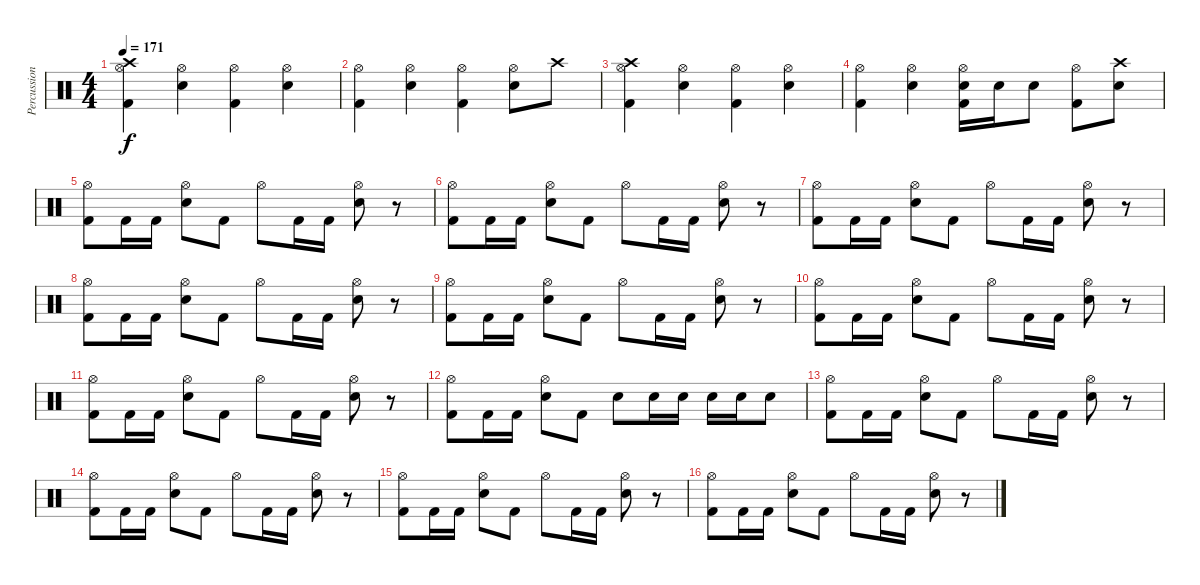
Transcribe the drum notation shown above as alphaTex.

\track ("Percussions" "Percussion") {instrument percussion}
\staff {score}
\articulation defaults
\ts (4 4)
\tempo 171
\clef neutral
\ks c
("Crash high (hit)" "Hi-Hat (open)" "Kick (hit) 2").4{dy f} ("Hi-Hat (open)" "Electric Snare (hit)").4 ("Hi-Hat (open)" "Kick (hit) 2").4 ("Hi-Hat (open)" "Electric Snare (hit)").4 |
("Hi-Hat (open)" "Kick (hit) 2").4 ("Hi-Hat (open)" "Electric Snare (hit)").4 ("Hi-Hat (open)" "Kick (hit) 2").4 ("Hi-Hat (open)" "Electric Snare (hit)").8 "Crash high (hit)".8 |
("Crash high (hit)" "Hi-Hat (open)" "Kick (hit) 2").4 ("Hi-Hat (open)" "Electric Snare (hit)").4 ("Hi-Hat (open)" "Kick (hit) 2").4 ("Hi-Hat (open)" "Electric Snare (hit)").4 |
("Hi-Hat (open)" "Kick (hit) 2").4 ("Hi-Hat (open)" "Electric Snare (hit)").4 ("Hi-Hat (open)" "Electric Snare (hit)" "Kick (hit) 2").16 "Electric Snare (hit)".16 "Electric Snare (hit)".8 ("Hi-Hat (open)" "Kick (hit) 2").8 ("Crash high (hit)" "Electric Snare (hit)").8 |
("Hi-Hat (open)" "Kick (hit) 2").8 "Kick (hit) 2".16 "Kick (hit) 2".16 ("Hi-Hat (open)" "Electric Snare (hit)").8 "Kick (hit) 2".8 "Hi-Hat (open)".8 "Kick (hit) 2".16 "Kick (hit) 2".16 ("Hi-Hat (open)" "Electric Snare (hit)").8 r.8 |
("Hi-Hat (open)" "Kick (hit) 2").8 "Kick (hit) 2".16 "Kick (hit) 2".16 ("Hi-Hat (open)" "Electric Snare (hit)").8 "Kick (hit) 2".8 "Hi-Hat (open)".8 "Kick (hit) 2".16 "Kick (hit) 2".16 ("Hi-Hat (open)" "Electric Snare (hit)").8 r.8 |
("Hi-Hat (open)" "Kick (hit) 2").8 "Kick (hit) 2".16 "Kick (hit) 2".16 ("Hi-Hat (open)" "Electric Snare (hit)").8 "Kick (hit) 2".8 "Hi-Hat (open)".8 "Kick (hit) 2".16 "Kick (hit) 2".16 ("Hi-Hat (open)" "Electric Snare (hit)").8 r.8 |
("Hi-Hat (open)" "Kick (hit) 2").8 "Kick (hit) 2".16 "Kick (hit) 2".16 ("Hi-Hat (open)" "Electric Snare (hit)").8 "Kick (hit) 2".8 "Hi-Hat (open)".8 "Kick (hit) 2".16 "Kick (hit) 2".16 ("Hi-Hat (open)" "Electric Snare (hit)").8 r.8 |
("Hi-Hat (open)" "Kick (hit) 2").8 "Kick (hit) 2".16 "Kick (hit) 2".16 ("Hi-Hat (open)" "Electric Snare (hit)").8 "Kick (hit) 2".8 "Hi-Hat (open)".8 "Kick (hit) 2".16 "Kick (hit) 2".16 ("Hi-Hat (open)" "Electric Snare (hit)").8 r.8 |
("Hi-Hat (open)" "Kick (hit) 2").8 "Kick (hit) 2".16 "Kick (hit) 2".16 ("Hi-Hat (open)" "Electric Snare (hit)").8 "Kick (hit) 2".8 "Hi-Hat (open)".8 "Kick (hit) 2".16 "Kick (hit) 2".16 ("Hi-Hat (open)" "Electric Snare (hit)").8 r.8 |
("Hi-Hat (open)" "Kick (hit) 2").8 "Kick (hit) 2".16 "Kick (hit) 2".16 ("Hi-Hat (open)" "Electric Snare (hit)").8 "Kick (hit) 2".8 "Hi-Hat (open)".8 "Kick (hit) 2".16 "Kick (hit) 2".16 ("Hi-Hat (open)" "Electric Snare (hit)").8 r.8 |
("Hi-Hat (open)" "Kick (hit) 2").8 "Kick (hit) 2".16 "Kick (hit) 2".16 ("Hi-Hat (open)" "Electric Snare (hit)").8 "Kick (hit) 2".8 "Electric Snare (hit)".8 "Electric Snare (hit)".16 "Electric Snare (hit)".16 "Electric Snare (hit)".16 "Electric Snare (hit)".16 "Electric Snare (hit)".8 |
("Hi-Hat (open)" "Kick (hit) 2").8 "Kick (hit) 2".16 "Kick (hit) 2".16 ("Hi-Hat (open)" "Electric Snare (hit)").8 "Kick (hit) 2".8 "Hi-Hat (open)".8 "Kick (hit) 2".16 "Kick (hit) 2".16 ("Hi-Hat (open)" "Electric Snare (hit)").8 r.8 |
("Hi-Hat (open)" "Kick (hit) 2").8 "Kick (hit) 2".16 "Kick (hit) 2".16 ("Hi-Hat (open)" "Electric Snare (hit)").8 "Kick (hit) 2".8 "Hi-Hat (open)".8 "Kick (hit) 2".16 "Kick (hit) 2".16 ("Hi-Hat (open)" "Electric Snare (hit)").8 r.8 |
("Hi-Hat (open)" "Kick (hit) 2").8 "Kick (hit) 2".16 "Kick (hit) 2".16 ("Hi-Hat (open)" "Electric Snare (hit)").8 "Kick (hit) 2".8 "Hi-Hat (open)".8 "Kick (hit) 2".16 "Kick (hit) 2".16 ("Hi-Hat (open)" "Electric Snare (hit)").8 r.8 |
("Hi-Hat (open)" "Kick (hit) 2").8 "Kick (hit) 2".16 "Kick (hit) 2".16 ("Hi-Hat (open)" "Electric Snare (hit)").8 "Kick (hit) 2".8 "Hi-Hat (open)".8 "Kick (hit) 2".16 "Kick (hit) 2".16 ("Hi-Hat (open)" "Electric Snare (hit)").8 r.8
